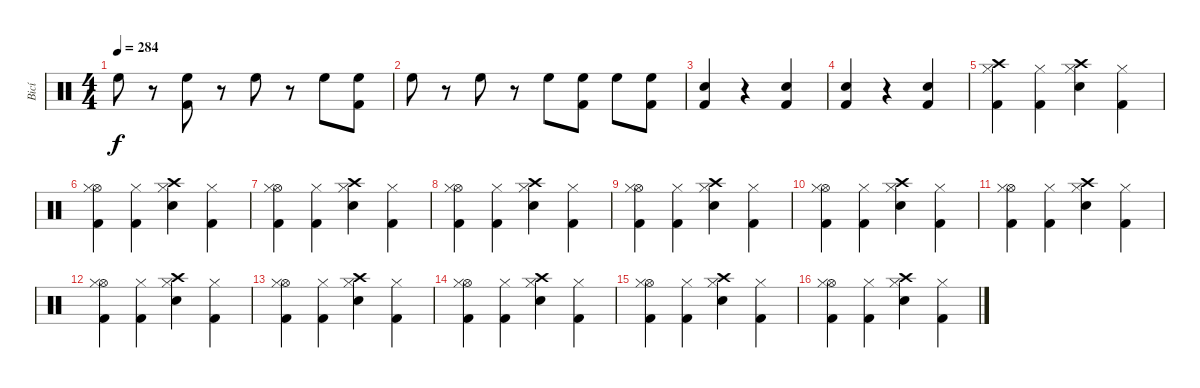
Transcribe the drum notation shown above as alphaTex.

\track ("Bicí" "Bicí") {instrument percussion}
\staff {score}
\articulation defaults
\ts (4 4)
\tempo 284
\clef neutral
\ks c "High Floor Tom (hit)".8{dy f}
r.8 ("Kick (hit) 2" "High Floor Tom (hit)").8 r.8 "High Floor Tom (hit)".8 r.8 "High Floor Tom (hit)".8 ("Kick (hit) 2" "High Floor Tom (hit)").8 |
"High Floor Tom (hit)".8 r.8 "High Floor Tom (hit)".8 r.8 "High Floor Tom (hit)".8 ("Kick (hit) 2" "High Floor Tom (hit)").8 "High Floor Tom (hit)".8 ("Kick (hit) 2" "High Floor Tom (hit)").8 |
("Electric Snare (hit)" "Kick (hit) 2").4 r.4 ("Electric Snare (hit)" "Kick (hit) 2").4 |
("Electric Snare (hit)" "Kick (hit) 2").4 r.4 ("Electric Snare (hit)" "Kick (hit) 2").4 |
("Crash high (hit)" "Hi-Hat (closed)" "Kick (hit) 2").4 ("Hi-Hat (closed)" "Kick (hit) 2").4 ("Crash high (hit)" "Hi-Hat (closed)" "Electric Snare (hit)").4 ("Hi-Hat (closed)" "Kick (hit) 2").4 |
("Hi-Hat (open)" "Hi-Hat (closed)" "Kick (hit) 2").4 ("Hi-Hat (closed)" "Kick (hit) 2").4 ("Crash high (hit)" "Hi-Hat (closed)" "Electric Snare (hit)").4 ("Hi-Hat (closed)" "Kick (hit) 2").4 |
("Hi-Hat (open)" "Hi-Hat (closed)" "Kick (hit) 2").4 ("Hi-Hat (closed)" "Kick (hit) 2").4 ("Crash high (hit)" "Hi-Hat (closed)" "Electric Snare (hit)").4 ("Hi-Hat (closed)" "Kick (hit) 2").4 |
("Hi-Hat (open)" "Hi-Hat (closed)" "Kick (hit) 2").4 ("Hi-Hat (closed)" "Kick (hit) 2").4 ("Crash high (hit)" "Hi-Hat (closed)" "Electric Snare (hit)").4 ("Hi-Hat (closed)" "Kick (hit) 2").4 |
("Hi-Hat (open)" "Hi-Hat (closed)" "Kick (hit) 2").4 ("Hi-Hat (closed)" "Kick (hit) 2").4 ("Crash high (hit)" "Hi-Hat (closed)" "Electric Snare (hit)").4 ("Hi-Hat (closed)" "Kick (hit) 2").4 |
("Hi-Hat (open)" "Hi-Hat (closed)" "Kick (hit) 2").4 ("Hi-Hat (closed)" "Kick (hit) 2").4 ("Crash high (hit)" "Hi-Hat (closed)" "Electric Snare (hit)").4 ("Hi-Hat (closed)" "Kick (hit) 2").4 |
("Hi-Hat (open)" "Hi-Hat (closed)" "Kick (hit) 2").4 ("Hi-Hat (closed)" "Kick (hit) 2").4 ("Crash high (hit)" "Hi-Hat (closed)" "Electric Snare (hit)").4 ("Hi-Hat (closed)" "Kick (hit) 2").4 |
("Hi-Hat (open)" "Hi-Hat (closed)" "Kick (hit) 2").4 ("Hi-Hat (closed)" "Kick (hit) 2").4 ("Crash high (hit)" "Hi-Hat (closed)" "Electric Snare (hit)").4 ("Hi-Hat (closed)" "Kick (hit) 2").4 |
("Hi-Hat (open)" "Hi-Hat (closed)" "Kick (hit) 2").4 ("Hi-Hat (closed)" "Kick (hit) 2").4 ("Crash high (hit)" "Hi-Hat (closed)" "Electric Snare (hit)").4 ("Hi-Hat (closed)" "Kick (hit) 2").4 |
("Hi-Hat (open)" "Hi-Hat (closed)" "Kick (hit) 2").4 ("Hi-Hat (closed)" "Kick (hit) 2").4 ("Crash high (hit)" "Hi-Hat (closed)" "Electric Snare (hit)").4 ("Hi-Hat (closed)" "Kick (hit) 2").4 |
("Hi-Hat (open)" "Hi-Hat (closed)" "Kick (hit) 2").4 ("Hi-Hat (closed)" "Kick (hit) 2").4 ("Crash high (hit)" "Hi-Hat (closed)" "Electric Snare (hit)").4 ("Hi-Hat (closed)" "Kick (hit) 2").4 |
("Hi-Hat (open)" "Hi-Hat (closed)" "Kick (hit) 2").4 ("Hi-Hat (closed)" "Kick (hit) 2").4 ("Crash high (hit)" "Hi-Hat (closed)" "Electric Snare (hit)").4 ("Hi-Hat (closed)" "Kick (hit) 2").4
